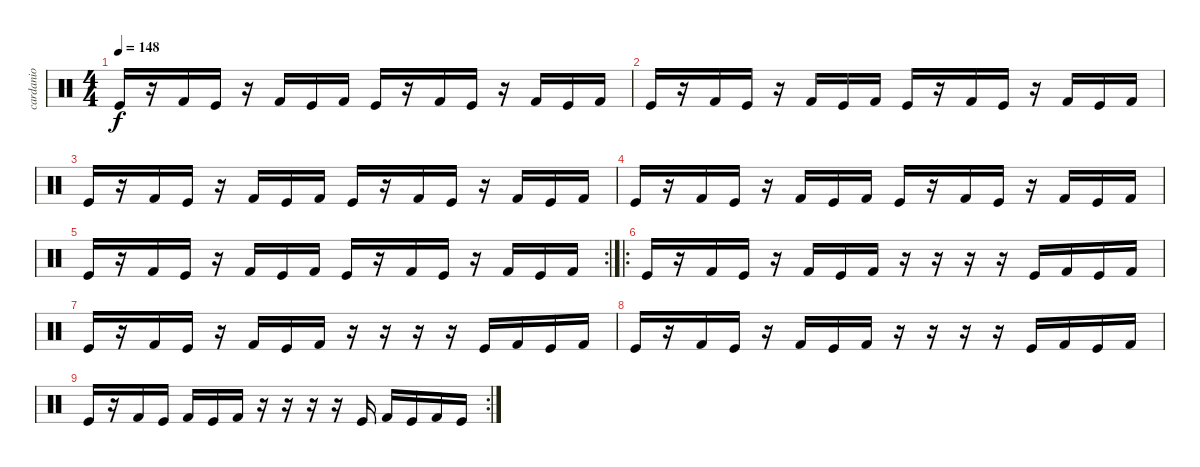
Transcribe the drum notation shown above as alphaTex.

\track ("cardanio" "cardanio") {instrument percussion}
\staff {score}
\articulation defaults
\ts (4 4)
\tempo 148
\clef neutral
\ks c "Kick (hit)".16{dy f}
r.16 "Kick (hit) 2".16 "Kick (hit)".16 r.16 "Kick (hit) 2".16 "Kick (hit)".16 "Kick (hit) 2".16 "Kick (hit)".16 r.16 "Kick (hit) 2".16 "Kick (hit)".16 r.16 "Kick (hit) 2".16 "Kick (hit)".16 "Kick (hit) 2".16 |
"Kick (hit)".16 r.16 "Kick (hit) 2".16 "Kick (hit)".16 r.16 "Kick (hit) 2".16 "Kick (hit)".16 "Kick (hit) 2".16 "Kick (hit)".16 r.16 "Kick (hit) 2".16 "Kick (hit)".16 r.16 "Kick (hit) 2".16 "Kick (hit)".16 "Kick (hit) 2".16 |
"Kick (hit)".16 r.16 "Kick (hit) 2".16 "Kick (hit)".16 r.16 "Kick (hit) 2".16 "Kick (hit)".16 "Kick (hit) 2".16 "Kick (hit)".16 r.16 "Kick (hit) 2".16 "Kick (hit)".16 r.16 "Kick (hit) 2".16 "Kick (hit)".16 "Kick (hit) 2".16 |
"Kick (hit)".16 r.16 "Kick (hit) 2".16 "Kick (hit)".16 r.16 "Kick (hit) 2".16 "Kick (hit)".16 "Kick (hit) 2".16 "Kick (hit)".16 r.16 "Kick (hit) 2".16 "Kick (hit)".16 r.16 "Kick (hit) 2".16 "Kick (hit)".16 "Kick (hit) 2".16 |
\rc 2 "Kick (hit)".16
r.16 "Kick (hit) 2".16 "Kick (hit)".16 r.16 "Kick (hit) 2".16 "Kick (hit)".16 "Kick (hit) 2".16 "Kick (hit)".16 r.16 "Kick (hit) 2".16 "Kick (hit)".16 r.16 "Kick (hit) 2".16 "Kick (hit)".16 "Kick (hit) 2".16 |
\ro "Kick (hit)".16
r.16 "Kick (hit) 2".16 "Kick (hit)".16 r.16 "Kick (hit) 2".16 "Kick (hit)".16 "Kick (hit) 2".16 r.16 r.16 r.16 r.16 "Kick (hit)".16 "Kick (hit) 2".16 "Kick (hit)".16 "Kick (hit) 2".16 |
"Kick (hit)".16 r.16 "Kick (hit) 2".16 "Kick (hit)".16 r.16 "Kick (hit) 2".16 "Kick (hit)".16 "Kick (hit) 2".16 r.16 r.16 r.16 r.16 "Kick (hit)".16 "Kick (hit) 2".16 "Kick (hit)".16 "Kick (hit) 2".16 |
"Kick (hit)".16 r.16 "Kick (hit) 2".16 "Kick (hit)".16 r.16 "Kick (hit) 2".16 "Kick (hit)".16 "Kick (hit) 2".16 r.16 r.16 r.16 r.16 "Kick (hit)".16 "Kick (hit) 2".16 "Kick (hit)".16 "Kick (hit) 2".16 |
\rc 2 "Kick (hit)".16
r.16 "Kick (hit) 2".16 "Kick (hit)".16 "Kick (hit) 2".16 "Kick (hit)".16 "Kick (hit) 2".16 r.16 r.16 r.16 r.16 "Kick (hit)".16 "Kick (hit) 2".16 "Kick (hit)".16 "Kick (hit) 2".16 "Kick (hit)".16
